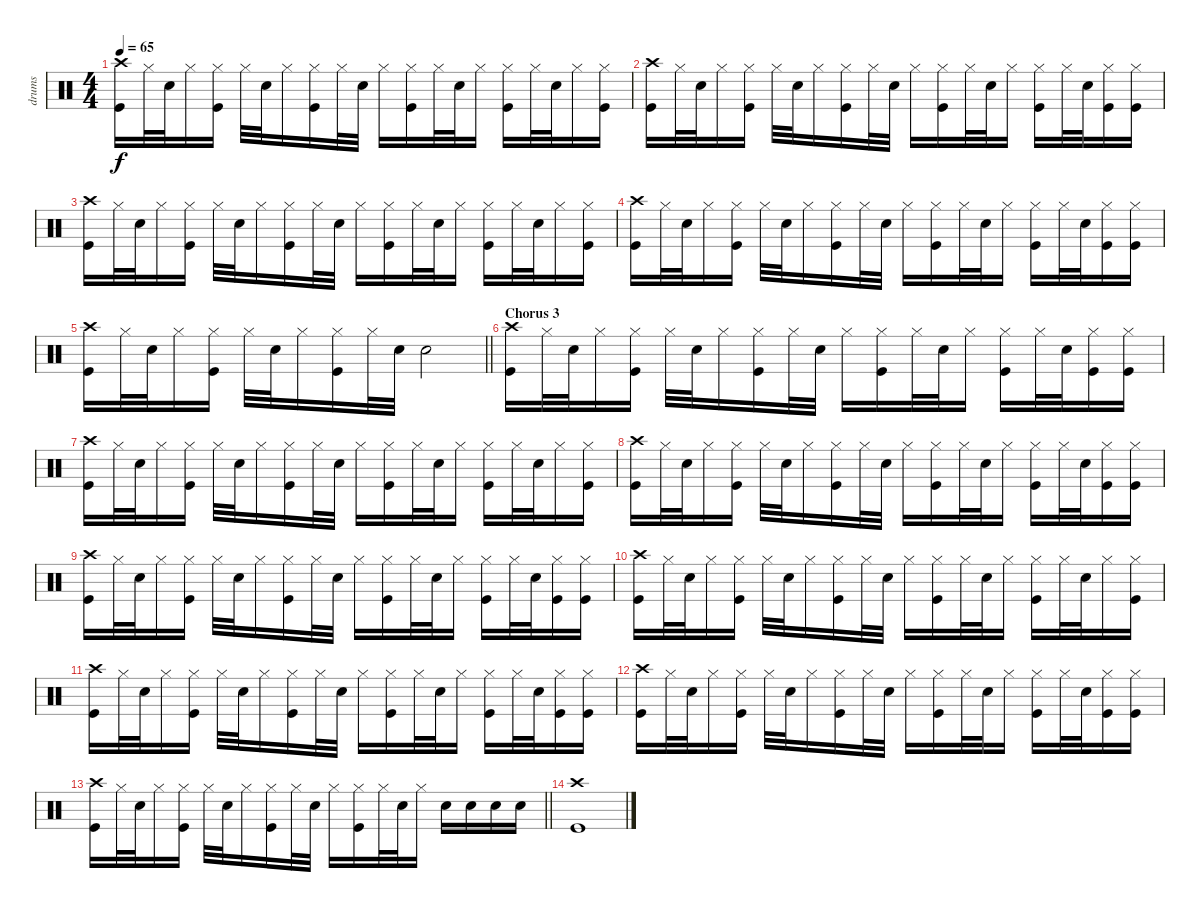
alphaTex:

\track ("drums" "drums") {instrument percussion}
\staff {score}
\articulation defaults
\ts (4 4)
\tempo 65
\clef neutral
\ks c
("Crash high (hit)" "Kick (hit)").16{dy f} "Hi-Hat (closed)".32 "Snare (hit) 2".32 "Hi-Hat (closed)".16 ("Hi-Hat (closed)" "Kick (hit)").16 "Hi-Hat (closed)".32 "Snare (hit) 2".32 "Hi-Hat (closed)".16 ("Hi-Hat (closed)" "Kick (hit)").16 "Hi-Hat (closed)".32 "Snare (hit) 2".32 "Hi-Hat (closed)".16 ("Hi-Hat (closed)" "Kick (hit)").16 "Hi-Hat (closed)".32 "Snare (hit) 2".32 "Hi-Hat (closed)".16 ("Hi-Hat (closed)" "Kick (hit)").16 "Hi-Hat (closed)".32 "Snare (hit) 2".32 "Hi-Hat (closed)".16 ("Hi-Hat (closed)" "Kick (hit)").16 |
("Crash high (hit)" "Kick (hit)").16 "Hi-Hat (closed)".32 "Snare (hit) 2".32 "Hi-Hat (closed)".16 ("Hi-Hat (closed)" "Kick (hit)").16 "Hi-Hat (closed)".32 "Snare (hit) 2".32 "Hi-Hat (closed)".16 ("Hi-Hat (closed)" "Kick (hit)").16 "Hi-Hat (closed)".32 "Snare (hit) 2".32 "Hi-Hat (closed)".16 ("Hi-Hat (closed)" "Kick (hit)").16 "Hi-Hat (closed)".32 "Snare (hit) 2".32 "Hi-Hat (closed)".16 ("Hi-Hat (closed)" "Kick (hit)").16 "Hi-Hat (closed)".32 "Snare (hit) 2".32 ("Hi-Hat (closed)" "Kick (hit)").16 ("Hi-Hat (closed)" "Kick (hit)").16 |
("Crash high (hit)" "Kick (hit)").16 "Hi-Hat (closed)".32 "Snare (hit) 2".32 "Hi-Hat (closed)".16 ("Hi-Hat (closed)" "Kick (hit)").16 "Hi-Hat (closed)".32 "Snare (hit) 2".32 "Hi-Hat (closed)".16 ("Hi-Hat (closed)" "Kick (hit)").16 "Hi-Hat (closed)".32 "Snare (hit) 2".32 "Hi-Hat (closed)".16 ("Hi-Hat (closed)" "Kick (hit)").16 "Hi-Hat (closed)".32 "Snare (hit) 2".32 "Hi-Hat (closed)".16 ("Hi-Hat (closed)" "Kick (hit)").16 "Hi-Hat (closed)".32 "Snare (hit) 2".32 "Hi-Hat (closed)".16 ("Hi-Hat (closed)" "Kick (hit)").16 |
("Crash high (hit)" "Kick (hit)").16 "Hi-Hat (closed)".32 "Snare (hit) 2".32 "Hi-Hat (closed)".16 ("Hi-Hat (closed)" "Kick (hit)").16 "Hi-Hat (closed)".32 "Snare (hit) 2".32 "Hi-Hat (closed)".16 ("Hi-Hat (closed)" "Kick (hit)").16 "Hi-Hat (closed)".32 "Snare (hit) 2".32 "Hi-Hat (closed)".16 ("Hi-Hat (closed)" "Kick (hit)").16 "Hi-Hat (closed)".32 "Snare (hit) 2".32 "Hi-Hat (closed)".16 ("Hi-Hat (closed)" "Kick (hit)").16 "Hi-Hat (closed)".32 "Snare (hit) 2".32 ("Hi-Hat (closed)" "Kick (hit)").16 ("Hi-Hat (closed)" "Kick (hit)").16 |
\barLineRight lightlight
("Crash high (hit)" "Kick (hit)").16 "Hi-Hat (closed)".32 "Snare (hit) 2".32 "Hi-Hat (closed)".16 ("Hi-Hat (closed)" "Kick (hit)").16 "Hi-Hat (closed)".32 "Snare (hit) 2".32 "Hi-Hat (closed)".16 ("Hi-Hat (closed)" "Kick (hit)").16 "Hi-Hat (closed)".32 "Snare (hit) 2".32 "Snare (hit) 2".2 |
\section ("" "Chorus 3")
("Crash high (hit)" "Kick (hit)").16 "Hi-Hat (closed)".32 "Snare (hit) 2".32 "Hi-Hat (closed)".16 ("Hi-Hat (closed)" "Kick (hit)").16 "Hi-Hat (closed)".32 "Snare (hit) 2".32 "Hi-Hat (closed)".16 ("Hi-Hat (closed)" "Kick (hit)").16 "Hi-Hat (closed)".32 "Snare (hit) 2".32 "Hi-Hat (closed)".16 ("Hi-Hat (closed)" "Kick (hit)").16 "Hi-Hat (closed)".32 "Snare (hit) 2".32 "Hi-Hat (closed)".16 ("Hi-Hat (closed)" "Kick (hit)").16 "Hi-Hat (closed)".32 "Snare (hit) 2".32 ("Hi-Hat (closed)" "Kick (hit)").16 ("Hi-Hat (closed)" "Kick (hit)").16 |
("Crash high (hit)" "Kick (hit)").16 "Hi-Hat (closed)".32 "Snare (hit) 2".32 "Hi-Hat (closed)".16 ("Hi-Hat (closed)" "Kick (hit)").16 "Hi-Hat (closed)".32 "Snare (hit) 2".32 "Hi-Hat (closed)".16 ("Hi-Hat (closed)" "Kick (hit)").16 "Hi-Hat (closed)".32 "Snare (hit) 2".32 "Hi-Hat (closed)".16 ("Hi-Hat (closed)" "Kick (hit)").16 "Hi-Hat (closed)".32 "Snare (hit) 2".32 "Hi-Hat (closed)".16 ("Hi-Hat (closed)" "Kick (hit)").16 "Hi-Hat (closed)".32 "Snare (hit) 2".32 "Hi-Hat (closed)".16 ("Hi-Hat (closed)" "Kick (hit)").16 |
("Crash high (hit)" "Kick (hit)").16 "Hi-Hat (closed)".32 "Snare (hit) 2".32 "Hi-Hat (closed)".16 ("Hi-Hat (closed)" "Kick (hit)").16 "Hi-Hat (closed)".32 "Snare (hit) 2".32 "Hi-Hat (closed)".16 ("Hi-Hat (closed)" "Kick (hit)").16 "Hi-Hat (closed)".32 "Snare (hit) 2".32 "Hi-Hat (closed)".16 ("Hi-Hat (closed)" "Kick (hit)").16 "Hi-Hat (closed)".32 "Snare (hit) 2".32 "Hi-Hat (closed)".16 ("Hi-Hat (closed)" "Kick (hit)").16 "Hi-Hat (closed)".32 "Snare (hit) 2".32 ("Hi-Hat (closed)" "Kick (hit)").16 ("Hi-Hat (closed)" "Kick (hit)").16 |
("Crash high (hit)" "Kick (hit)").16 "Hi-Hat (closed)".32 "Snare (hit) 2".32 "Hi-Hat (closed)".16 ("Hi-Hat (closed)" "Kick (hit)").16 "Hi-Hat (closed)".32 "Snare (hit) 2".32 "Hi-Hat (closed)".16 ("Hi-Hat (closed)" "Kick (hit)").16 "Hi-Hat (closed)".32 "Snare (hit) 2".32 "Hi-Hat (closed)".16 ("Hi-Hat (closed)" "Kick (hit)").16 "Hi-Hat (closed)".32 "Snare (hit) 2".32 "Hi-Hat (closed)".16 ("Hi-Hat (closed)" "Kick (hit)").16 "Hi-Hat (closed)".32 "Snare (hit) 2".32 ("Hi-Hat (closed)" "Kick (hit)").16 ("Hi-Hat (closed)" "Kick (hit)").16 |
("Crash high (hit)" "Kick (hit)").16 "Hi-Hat (closed)".32 "Snare (hit) 2".32 "Hi-Hat (closed)".16 ("Hi-Hat (closed)" "Kick (hit)").16 "Hi-Hat (closed)".32 "Snare (hit) 2".32 "Hi-Hat (closed)".16 ("Hi-Hat (closed)" "Kick (hit)").16 "Hi-Hat (closed)".32 "Snare (hit) 2".32 "Hi-Hat (closed)".16 ("Hi-Hat (closed)" "Kick (hit)").16 "Hi-Hat (closed)".32 "Snare (hit) 2".32 "Hi-Hat (closed)".16 ("Hi-Hat (closed)" "Kick (hit)").16 "Hi-Hat (closed)".32 "Snare (hit) 2".32 "Hi-Hat (closed)".16 ("Hi-Hat (closed)" "Kick (hit)").16 |
("Crash high (hit)" "Kick (hit)").16 "Hi-Hat (closed)".32 "Snare (hit) 2".32 "Hi-Hat (closed)".16 ("Hi-Hat (closed)" "Kick (hit)").16 "Hi-Hat (closed)".32 "Snare (hit) 2".32 "Hi-Hat (closed)".16 ("Hi-Hat (closed)" "Kick (hit)").16 "Hi-Hat (closed)".32 "Snare (hit) 2".32 "Hi-Hat (closed)".16 ("Hi-Hat (closed)" "Kick (hit)").16 "Hi-Hat (closed)".32 "Snare (hit) 2".32 "Hi-Hat (closed)".16 ("Hi-Hat (closed)" "Kick (hit)").16 "Hi-Hat (closed)".32 "Snare (hit) 2".32 ("Hi-Hat (closed)" "Kick (hit)").16 ("Hi-Hat (closed)" "Kick (hit)").16 |
("Crash high (hit)" "Kick (hit)").16 "Hi-Hat (closed)".32 "Snare (hit) 2".32 "Hi-Hat (closed)".16 ("Hi-Hat (closed)" "Kick (hit)").16 "Hi-Hat (closed)".32 "Snare (hit) 2".32 "Hi-Hat (closed)".16 ("Hi-Hat (closed)" "Kick (hit)").16 "Hi-Hat (closed)".32 "Snare (hit) 2".32 "Hi-Hat (closed)".16 ("Hi-Hat (closed)" "Kick (hit)").16 "Hi-Hat (closed)".32 "Snare (hit) 2".32 "Hi-Hat (closed)".16 ("Hi-Hat (closed)" "Kick (hit)").16 "Hi-Hat (closed)".32 "Snare (hit) 2".32 ("Hi-Hat (closed)" "Kick (hit)").16 ("Hi-Hat (closed)" "Kick (hit)").16 |
\barLineRight lightlight
("Crash high (hit)" "Kick (hit)").16 "Hi-Hat (closed)".32 "Snare (hit) 2".32 "Hi-Hat (closed)".16 ("Hi-Hat (closed)" "Kick (hit)").16 "Hi-Hat (closed)".32 "Snare (hit) 2".32 "Hi-Hat (closed)".16 ("Hi-Hat (closed)" "Kick (hit)").16 "Hi-Hat (closed)".32 "Snare (hit) 2".32 "Hi-Hat (closed)".16 ("Hi-Hat (closed)" "Kick (hit)").16 "Hi-Hat (closed)".32 "Snare (hit) 2".32 "Hi-Hat (closed)".16 "Snare (hit) 2".16 "Snare (hit) 2".16 "Snare (hit) 2".16 "Snare (hit) 2".16 |
("Crash high (hit)" "Kick (hit)").1
